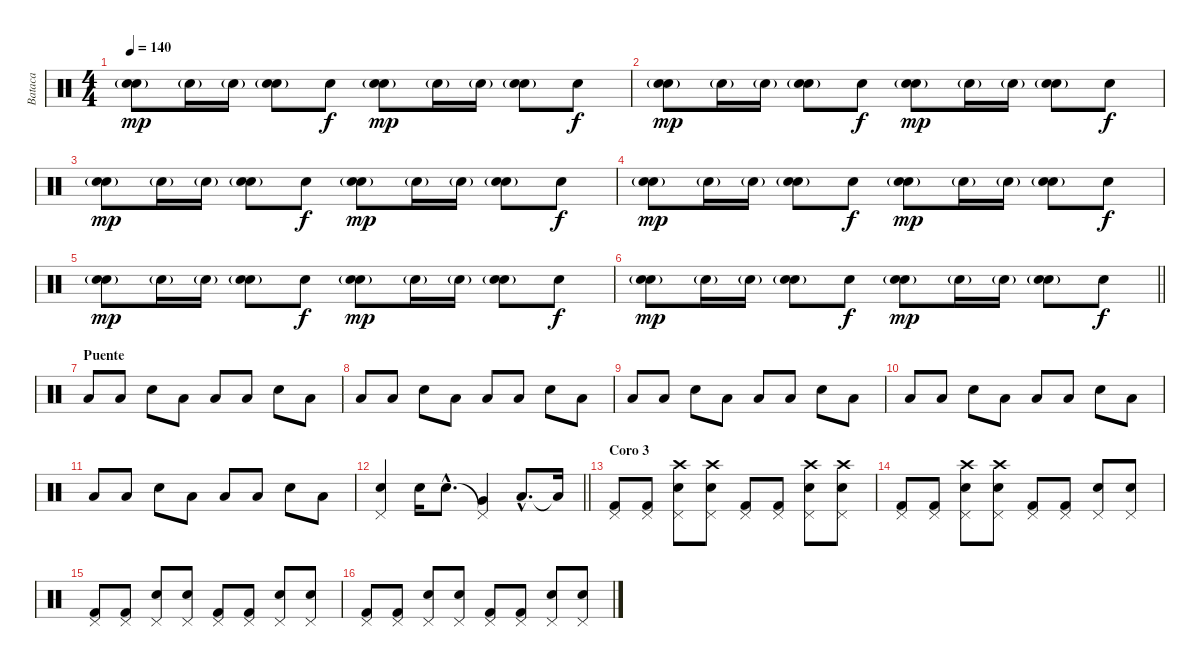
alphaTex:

\track ("Bataca" "Bataca") {instrument percussion}
\staff {score}
\articulation defaults
\ts (4 4)
\tempo 140
\clef neutral
\ks c
("Snare (hit) 2" "Electric Snare (hit)"{g}).8{dy mp} "Electric Snare (hit)"{g}.16 "Electric Snare (hit)"{g}.16 ("Snare (hit) 2" "Electric Snare (hit)"{g}).8 "Electric Snare (hit)".8{dy f} ("Snare (hit) 2" "Electric Snare (hit)"{g}).8{dy mp} "Electric Snare (hit)"{g}.16 "Electric Snare (hit)"{g}.16 ("Snare (hit) 2" "Electric Snare (hit)"{g}).8 "Electric Snare (hit)".8{dy f} |
("Snare (hit) 2" "Electric Snare (hit)"{g}).8{dy mp} "Electric Snare (hit)"{g}.16 "Electric Snare (hit)"{g}.16 ("Snare (hit) 2" "Electric Snare (hit)"{g}).8 "Electric Snare (hit)".8{dy f} ("Snare (hit) 2" "Electric Snare (hit)"{g}).8{dy mp} "Electric Snare (hit)"{g}.16 "Electric Snare (hit)"{g}.16 ("Snare (hit) 2" "Electric Snare (hit)"{g}).8 "Electric Snare (hit)".8{dy f} |
("Snare (hit) 2" "Electric Snare (hit)"{g}).8{dy mp} "Electric Snare (hit)"{g}.16 "Electric Snare (hit)"{g}.16 ("Snare (hit) 2" "Electric Snare (hit)"{g}).8 "Electric Snare (hit)".8{dy f} ("Snare (hit) 2" "Electric Snare (hit)"{g}).8{dy mp} "Electric Snare (hit)"{g}.16 "Electric Snare (hit)"{g}.16 ("Snare (hit) 2" "Electric Snare (hit)"{g}).8 "Electric Snare (hit)".8{dy f} |
("Snare (hit) 2" "Electric Snare (hit)"{g}).8{dy mp} "Electric Snare (hit)"{g}.16 "Electric Snare (hit)"{g}.16 ("Snare (hit) 2" "Electric Snare (hit)"{g}).8 "Electric Snare (hit)".8{dy f} ("Snare (hit) 2" "Electric Snare (hit)"{g}).8{dy mp} "Electric Snare (hit)"{g}.16 "Electric Snare (hit)"{g}.16 ("Snare (hit) 2" "Electric Snare (hit)"{g}).8 "Electric Snare (hit)".8{dy f} |
("Snare (hit) 2" "Electric Snare (hit)"{g}).8{dy mp} "Electric Snare (hit)"{g}.16 "Electric Snare (hit)"{g}.16 ("Snare (hit) 2" "Electric Snare (hit)"{g}).8 "Electric Snare (hit)".8{dy f} ("Snare (hit) 2" "Electric Snare (hit)"{g}).8{dy mp} "Electric Snare (hit)"{g}.16 "Electric Snare (hit)"{g}.16 ("Snare (hit) 2" "Electric Snare (hit)"{g}).8 "Electric Snare (hit)".8{dy f} |
\barLineRight lightlight
("Snare (hit) 2" "Electric Snare (hit)"{g}).8{dy mp} "Electric Snare (hit)"{g}.16 "Electric Snare (hit)"{g}.16 ("Snare (hit) 2" "Electric Snare (hit)"{g}).8 "Electric Snare (hit)".8{dy f} ("Snare (hit) 2" "Electric Snare (hit)"{g}).8{dy mp} "Electric Snare (hit)"{g}.16 "Electric Snare (hit)"{g}.16 ("Snare (hit) 2" "Electric Snare (hit)"{g}).8 "Electric Snare (hit)".8{dy f} |
\section ("" "Puente")
"Low Floor Tom (hit)".8 "Low Floor Tom (hit)".8 "Electric Snare (hit)".8 "Low Floor Tom (hit)".8 "Low Floor Tom (hit)".8 "Low Floor Tom (hit)".8 "Electric Snare (hit)".8 "Low Floor Tom (hit)".8 |
"Low Floor Tom (hit)".8 "Low Floor Tom (hit)".8 "Electric Snare (hit)".8 "Low Floor Tom (hit)".8 "Low Floor Tom (hit)".8 "Low Floor Tom (hit)".8 "Electric Snare (hit)".8 "Low Floor Tom (hit)".8 |
"Low Floor Tom (hit)".8 "Low Floor Tom (hit)".8 "Electric Snare (hit)".8 "Low Floor Tom (hit)".8 "Low Floor Tom (hit)".8 "Low Floor Tom (hit)".8 "Electric Snare (hit)".8 "Low Floor Tom (hit)".8 |
"Low Floor Tom (hit)".8 "Low Floor Tom (hit)".8 "Electric Snare (hit)".8 "Low Floor Tom (hit)".8 "Low Floor Tom (hit)".8 "Low Floor Tom (hit)".8 "Electric Snare (hit)".8 "Low Floor Tom (hit)".8 |
"Low Floor Tom (hit)".8 "Low Floor Tom (hit)".8 "Electric Snare (hit)".8 "Low Floor Tom (hit)".8 "Low Floor Tom (hit)".8 "Low Floor Tom (hit)".8 "Electric Snare (hit)".8 "Low Floor Tom (hit)".8 |
\barLineRight lightlight
("Pedal Hi-Hat (hit)" "Electric Snare (hit)").4 "Electric Snare (hit)".16 "Electric Snare (hit)"{hac}.8{d} ("Pedal Hi-Hat (hit)"{t} "Very Low Tom (hit)").4 "Low Floor Tom (hit)"{hac}.8{d} "Low Floor Tom (hit)"{t}.16 |
\section ("" "Coro 3")
("Pedal Hi-Hat (hit)" "Kick (hit) 2").8 ("Pedal Hi-Hat (hit)" "Kick (hit) 2").8 ("Crash high (hit)" "Pedal Hi-Hat (hit)" "Electric Snare (hit)").8 ("Crash high (hit)" "Pedal Hi-Hat (hit)" "Electric Snare (hit)").8 ("Pedal Hi-Hat (hit)" "Kick (hit) 2").8 ("Pedal Hi-Hat (hit)" "Kick (hit) 2").8 ("Crash high (hit)" "Pedal Hi-Hat (hit)" "Electric Snare (hit)").8 ("Crash high (hit)" "Pedal Hi-Hat (hit)" "Electric Snare (hit)").8 |
("Pedal Hi-Hat (hit)" "Kick (hit) 2").8 ("Pedal Hi-Hat (hit)" "Kick (hit) 2").8 ("Crash high (hit)" "Pedal Hi-Hat (hit)" "Electric Snare (hit)").8 ("Crash high (hit)" "Pedal Hi-Hat (hit)" "Electric Snare (hit)").8 ("Pedal Hi-Hat (hit)" "Kick (hit) 2").8 ("Pedal Hi-Hat (hit)" "Kick (hit) 2").8 ("Pedal Hi-Hat (hit)" "Electric Snare (hit)").8 ("Pedal Hi-Hat (hit)" "Electric Snare (hit)").8 |
("Pedal Hi-Hat (hit)" "Kick (hit) 2").8 ("Pedal Hi-Hat (hit)" "Kick (hit) 2").8 ("Pedal Hi-Hat (hit)" "Electric Snare (hit)").8 ("Pedal Hi-Hat (hit)" "Electric Snare (hit)").8 ("Pedal Hi-Hat (hit)" "Kick (hit) 2").8 ("Pedal Hi-Hat (hit)" "Kick (hit) 2").8 ("Pedal Hi-Hat (hit)" "Electric Snare (hit)").8 ("Pedal Hi-Hat (hit)" "Electric Snare (hit)").8 |
("Pedal Hi-Hat (hit)" "Kick (hit) 2").8 ("Pedal Hi-Hat (hit)" "Kick (hit) 2").8 ("Pedal Hi-Hat (hit)" "Electric Snare (hit)").8 ("Pedal Hi-Hat (hit)" "Electric Snare (hit)").8 ("Pedal Hi-Hat (hit)" "Kick (hit) 2").8 ("Pedal Hi-Hat (hit)" "Kick (hit) 2").8 ("Pedal Hi-Hat (hit)" "Electric Snare (hit)").8 ("Pedal Hi-Hat (hit)" "Electric Snare (hit)").8
